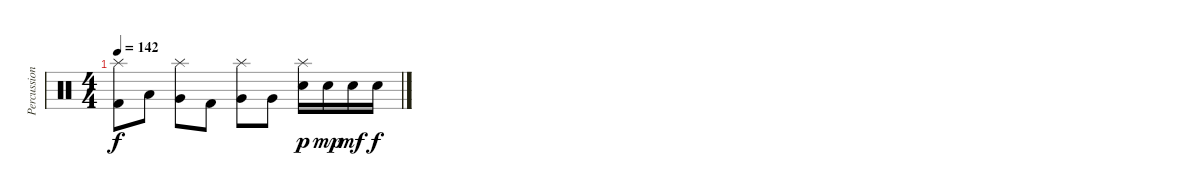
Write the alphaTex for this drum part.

\track ("Percussions" "Percussion") {instrument percussion}
\staff {score}
\articulation defaults
\ts (4 4)
\tempo 142
\clef neutral
\ks c
("Splash (hit)" "Kick (hit) 2").8{dy f} "Low Tom (hit)".8 ("Splash (hit)" "Very Low Tom (hit)").8 "Kick (hit) 2".8 ("Splash (hit)" "Very Low Tom (hit)").8 "Very Low Tom (hit)".8 ("Splash (hit)" "Electric Snare (hit)").16{dy p} "Electric Snare (hit)".16{dy mp} "Electric Snare (hit)".16{dy mf} "Electric Snare (hit)".16{dy f}
